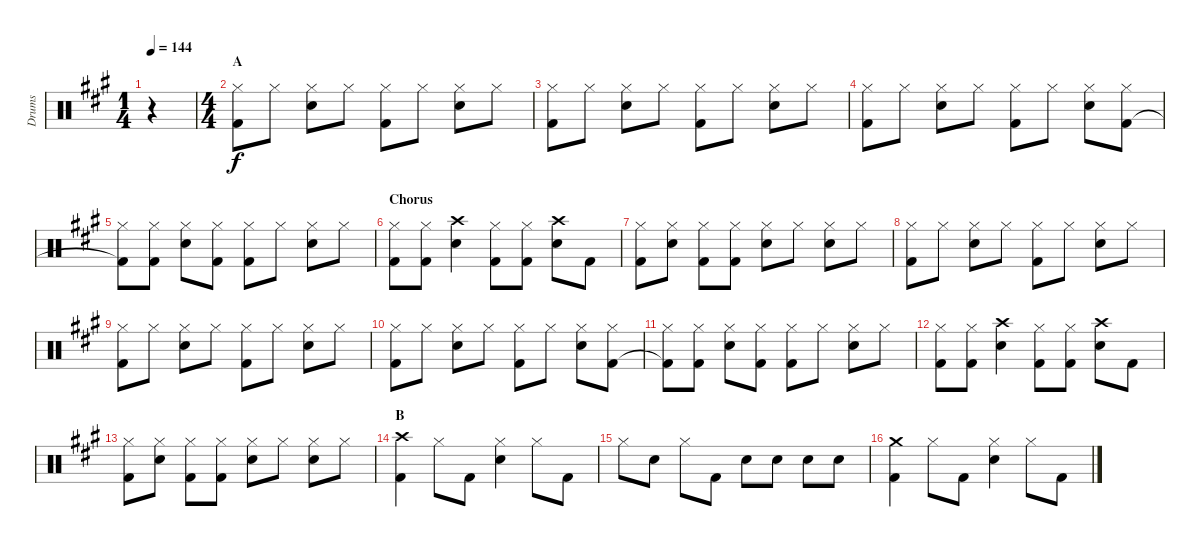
\track ("Drums" "Drums") {instrument percussion}
\staff {score}
\articulation defaults
\ts (1 4)
\tempo 144
\clef neutral
\ks a
r.4{dy f} |
\ts (4 4)
\section ("" "A")
("Hi-Hat (closed)" "Kick (hit) 2").8 "Hi-Hat (closed)".8 ("Hi-Hat (closed)" "Snare (hit) 2").8 "Hi-Hat (closed)".8 ("Hi-Hat (closed)" "Kick (hit) 2").8 "Hi-Hat (closed)".8 ("Hi-Hat (closed)" "Snare (hit) 2").8 "Hi-Hat (closed)".8 |
("Hi-Hat (closed)" "Kick (hit) 2").8 "Hi-Hat (closed)".8 ("Hi-Hat (closed)" "Snare (hit) 2").8 "Hi-Hat (closed)".8 ("Hi-Hat (closed)" "Kick (hit) 2").8 "Hi-Hat (closed)".8 ("Hi-Hat (closed)" "Snare (hit) 2").8 "Hi-Hat (closed)".8 |
("Hi-Hat (closed)" "Kick (hit) 2").8 "Hi-Hat (closed)".8 ("Hi-Hat (closed)" "Snare (hit) 2").8 "Hi-Hat (closed)".8 ("Hi-Hat (closed)" "Kick (hit) 2").8 "Hi-Hat (closed)".8 ("Hi-Hat (closed)" "Snare (hit) 2").8 ("Hi-Hat (closed)" "Kick (hit) 2").8 |
("Hi-Hat (closed)" "Kick (hit) 2"{t}).8 ("Hi-Hat (closed)" "Kick (hit) 2").8 ("Hi-Hat (closed)" "Snare (hit) 2").8 ("Hi-Hat (closed)" "Kick (hit) 2").8 ("Hi-Hat (closed)" "Kick (hit) 2").8 "Hi-Hat (closed)".8 ("Hi-Hat (closed)" "Snare (hit) 2").8 "Hi-Hat (closed)".8 |
\section ("" "Chorus")
("Hi-Hat (closed)" "Kick (hit) 2").8 ("Hi-Hat (closed)" "Kick (hit) 2").8 ("Crash high (hit)" "Snare (hit) 2").4 ("Hi-Hat (closed)" "Kick (hit) 2").8 ("Hi-Hat (closed)" "Kick (hit) 2").8 ("Crash high (hit)" "Snare (hit) 2").8 "Kick (hit) 2".8 |
("Hi-Hat (closed)" "Kick (hit) 2").8 ("Hi-Hat (closed)" "Snare (hit) 2").8 ("Hi-Hat (closed)" "Kick (hit) 2").8 ("Hi-Hat (closed)" "Kick (hit) 2").8 ("Hi-Hat (closed)" "Snare (hit) 2").8 "Hi-Hat (closed)".8 ("Hi-Hat (closed)" "Snare (hit) 2").8 "Hi-Hat (closed)".8 |
("Hi-Hat (closed)" "Kick (hit) 2").8 "Hi-Hat (closed)".8 ("Hi-Hat (closed)" "Snare (hit) 2").8 "Hi-Hat (closed)".8 ("Hi-Hat (closed)" "Kick (hit) 2").8 "Hi-Hat (closed)".8 ("Hi-Hat (closed)" "Snare (hit) 2").8 "Hi-Hat (closed)".8 |
("Hi-Hat (closed)" "Kick (hit) 2").8 "Hi-Hat (closed)".8 ("Hi-Hat (closed)" "Snare (hit) 2").8 "Hi-Hat (closed)".8 ("Hi-Hat (closed)" "Kick (hit) 2").8 "Hi-Hat (closed)".8 ("Hi-Hat (closed)" "Snare (hit) 2").8 "Hi-Hat (closed)".8 |
("Hi-Hat (closed)" "Kick (hit) 2").8 "Hi-Hat (closed)".8 ("Hi-Hat (closed)" "Snare (hit) 2").8 "Hi-Hat (closed)".8 ("Hi-Hat (closed)" "Kick (hit) 2").8 "Hi-Hat (closed)".8 ("Hi-Hat (closed)" "Snare (hit) 2").8 ("Hi-Hat (closed)" "Kick (hit) 2").8 |
("Hi-Hat (closed)" "Kick (hit) 2"{t}).8 ("Hi-Hat (closed)" "Kick (hit) 2").8 ("Hi-Hat (closed)" "Snare (hit) 2").8 ("Hi-Hat (closed)" "Kick (hit) 2").8 ("Hi-Hat (closed)" "Kick (hit) 2").8 "Hi-Hat (closed)".8 ("Hi-Hat (closed)" "Snare (hit) 2").8 "Hi-Hat (closed)".8 |
("Hi-Hat (closed)" "Kick (hit) 2").8 ("Hi-Hat (closed)" "Kick (hit) 2").8 ("Crash high (hit)" "Snare (hit) 2").4 ("Hi-Hat (closed)" "Kick (hit) 2").8 ("Hi-Hat (closed)" "Kick (hit) 2").8 ("Crash high (hit)" "Snare (hit) 2").8 "Kick (hit) 2".8 |
("Hi-Hat (closed)" "Kick (hit) 2").8 ("Hi-Hat (closed)" "Snare (hit) 2").8 ("Hi-Hat (closed)" "Kick (hit) 2").8 ("Hi-Hat (closed)" "Kick (hit) 2").8 ("Hi-Hat (closed)" "Snare (hit) 2").8 "Hi-Hat (closed)".8 ("Hi-Hat (closed)" "Snare (hit) 2").8 "Hi-Hat (closed)".8 |
\section ("" "B")
("Crash high (hit)" "Kick (hit) 2").4 "Hi-Hat (closed)".8 "Kick (hit) 2".8 ("Hi-Hat (closed)" "Snare (hit) 2").4 "Hi-Hat (closed)".8 "Kick (hit) 2".8 |
"Hi-Hat (closed)".8 "Snare (hit) 2".8 "Hi-Hat (closed)".8 "Kick (hit) 2".8 "Snare (hit) 2".8 "Snare (hit) 2".8 "Snare (hit) 2".8 "Snare (hit) 2".8 |
("Crash medium (hit)" "Kick (hit) 2").4 "Hi-Hat (closed)".8 "Kick (hit) 2".8 ("Hi-Hat (closed)" "Snare (hit) 2").4 "Hi-Hat (closed)".8 "Kick (hit) 2".8
